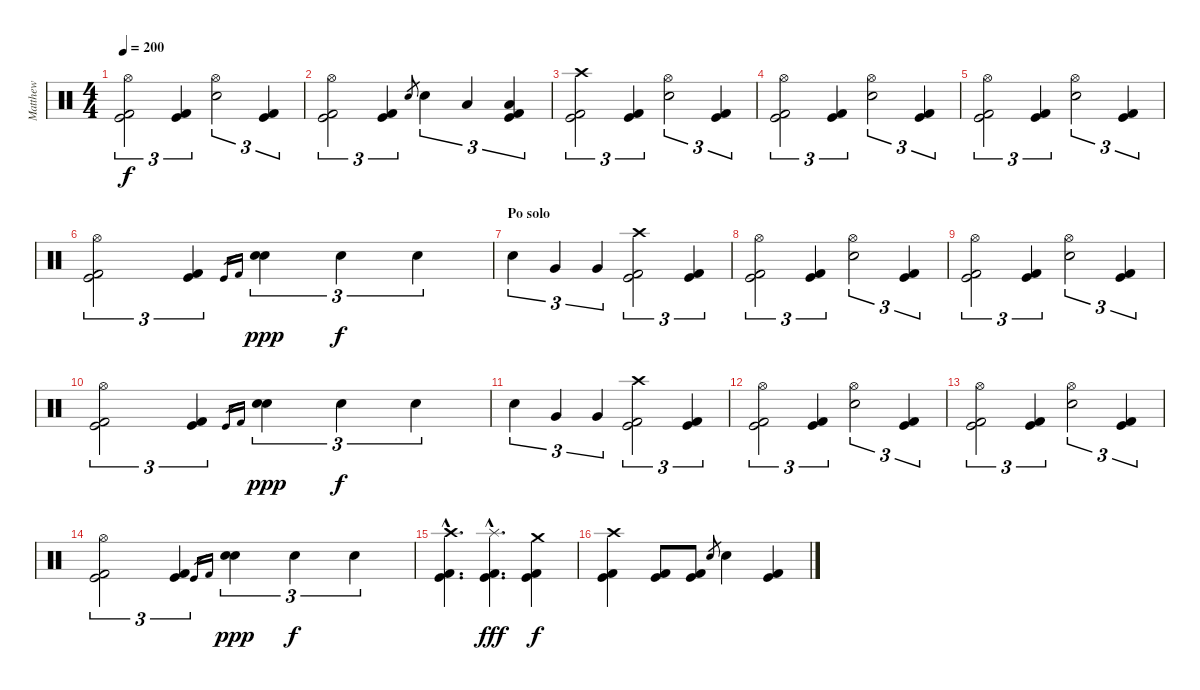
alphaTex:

\track ("Matthew" "Matthew") {instrument percussion}
\staff {score}
\articulation defaults
\ts (4 4)
\tempo 200
\clef neutral
\ks c
("Kick (hit) 2" "Kick (hit)" "Hi-Hat (open)").2{tu (3 2) dy f} ("Kick (hit) 2" "Kick (hit)").4{tu (3 2)} ("Snare (hit) 2" "Hi-Hat (open)").2{tu (3 2)} ("Kick (hit)" "Kick (hit) 2").4{tu (3 2)} |
("Kick (hit) 2" "Kick (hit)" "Hi-Hat (open)").2{tu (3 2)} ("Kick (hit) 2" "Kick (hit)").4{tu (3 2)} "Snare (hit) 2".8{gr} "Snare (hit) 2".4{tu (3 2)} "Low Tom (hit)".4{tu (3 2)} ("Low Floor Tom (hit)" "Kick (hit) 2" "Kick (hit)").4{tu (3 2)} |
("Kick (hit) 2" "Kick (hit)" "Crash high (hit)").2{tu (3 2)} ("Kick (hit) 2" "Kick (hit)").4{tu (3 2)} ("Snare (hit) 2" "Hi-Hat (open)").2{tu (3 2)} ("Kick (hit)" "Kick (hit) 2").4{tu (3 2)} |
("Kick (hit) 2" "Kick (hit)" "Hi-Hat (open)").2{tu (3 2)} ("Kick (hit) 2" "Kick (hit)").4{tu (3 2)} ("Snare (hit) 2" "Hi-Hat (open)").2{tu (3 2)} ("Kick (hit)" "Kick (hit) 2").4{tu (3 2)} |
("Kick (hit) 2" "Kick (hit)" "Hi-Hat (open)").2{tu (3 2)} ("Kick (hit) 2" "Kick (hit)").4{tu (3 2)} ("Snare (hit) 2" "Hi-Hat (open)").2{tu (3 2)} ("Kick (hit)" "Kick (hit) 2").4{tu (3 2)} |
("Kick (hit) 2" "Kick (hit)" "Hi-Hat (open)").2{tu (3 2)} ("Kick (hit) 2" "Kick (hit)").4{tu (3 2)} "Kick (hit)".16{gr} "Kick (hit) 2".16{gr} ("Snare (hit) 2" "Snare (hit) 2").4{tu (3 2) dy ppp} "Snare (hit) 2".4{tu (3 2) dy f} "Snare (hit) 2".4{tu (3 2)} |
\section ("" "Po solo")
"Snare (hit) 2".4{tu (3 2)} "Very Low Tom (hit)".4{tu (3 2)} "Very Low Tom (hit)".4{tu (3 2)} ("Kick (hit) 2" "Kick (hit)" "Crash high (hit)").2{tu (3 2)} ("Kick (hit) 2" "Kick (hit)").4{tu (3 2)} |
("Kick (hit) 2" "Kick (hit)" "Hi-Hat (open)").2{tu (3 2)} ("Kick (hit) 2" "Kick (hit)").4{tu (3 2)} ("Snare (hit) 2" "Hi-Hat (open)").2{tu (3 2)} ("Kick (hit)" "Kick (hit) 2").4{tu (3 2)} |
("Kick (hit) 2" "Kick (hit)" "Hi-Hat (open)").2{tu (3 2)} ("Kick (hit) 2" "Kick (hit)").4{tu (3 2)} ("Snare (hit) 2" "Hi-Hat (open)").2{tu (3 2)} ("Kick (hit)" "Kick (hit) 2").4{tu (3 2)} |
("Kick (hit) 2" "Kick (hit)" "Hi-Hat (open)").2{tu (3 2)} ("Kick (hit) 2" "Kick (hit)").4{tu (3 2)} "Kick (hit)".16{gr} "Kick (hit) 2".16{gr} ("Snare (hit) 2" "Snare (hit) 2").4{tu (3 2) dy ppp} "Snare (hit) 2".4{tu (3 2) dy f} "Snare (hit) 2".4{tu (3 2)} |
"Snare (hit) 2".4{tu (3 2)} "Very Low Tom (hit)".4{tu (3 2)} "Very Low Tom (hit)".4{tu (3 2)} ("Kick (hit) 2" "Kick (hit)" "Crash high (hit)").2{tu (3 2)} ("Kick (hit) 2" "Kick (hit)").4{tu (3 2)} |
("Kick (hit) 2" "Kick (hit)" "Hi-Hat (open)").2{tu (3 2)} ("Kick (hit) 2" "Kick (hit)").4{tu (3 2)} ("Snare (hit) 2" "Hi-Hat (open)").2{tu (3 2)} ("Kick (hit)" "Kick (hit) 2").4{tu (3 2)} |
("Kick (hit) 2" "Kick (hit)" "Hi-Hat (open)").2{tu (3 2)} ("Kick (hit) 2" "Kick (hit)").4{tu (3 2)} ("Snare (hit) 2" "Hi-Hat (open)").2{tu (3 2)} ("Kick (hit)" "Kick (hit) 2").4{tu (3 2)} |
("Kick (hit) 2" "Kick (hit)" "Hi-Hat (open)").2{tu (3 2)} ("Kick (hit) 2" "Kick (hit)").4{tu (3 2)} "Kick (hit)".16{gr} "Kick (hit) 2".16{gr} ("Snare (hit) 2" "Snare (hit) 2").4{tu (3 2) dy ppp} "Snare (hit) 2".4{tu (3 2) dy f} "Snare (hit) 2".4{tu (3 2)} |
("Kick (hit) 2"{hac} "Kick (hit)"{hac} "Crash high (hit)"{hac}).4{d} ("Kick (hit)"{hac} "Kick (hit) 2"{hac} "Splash (hit)"{hac}).4{d dy fff} ("Kick (hit) 2" "Kick (hit)" "Crash medium (hit)").4{dy f} |
("Kick (hit) 2" "Kick (hit)" "Crash high (hit)").4 ("Kick (hit) 2" "Kick (hit)").8 ("Kick (hit)" "Kick (hit) 2").8 "Snare (hit) 2".8{gr} "Snare (hit) 2".4 ("Kick (hit) 2" "Kick (hit)").4
